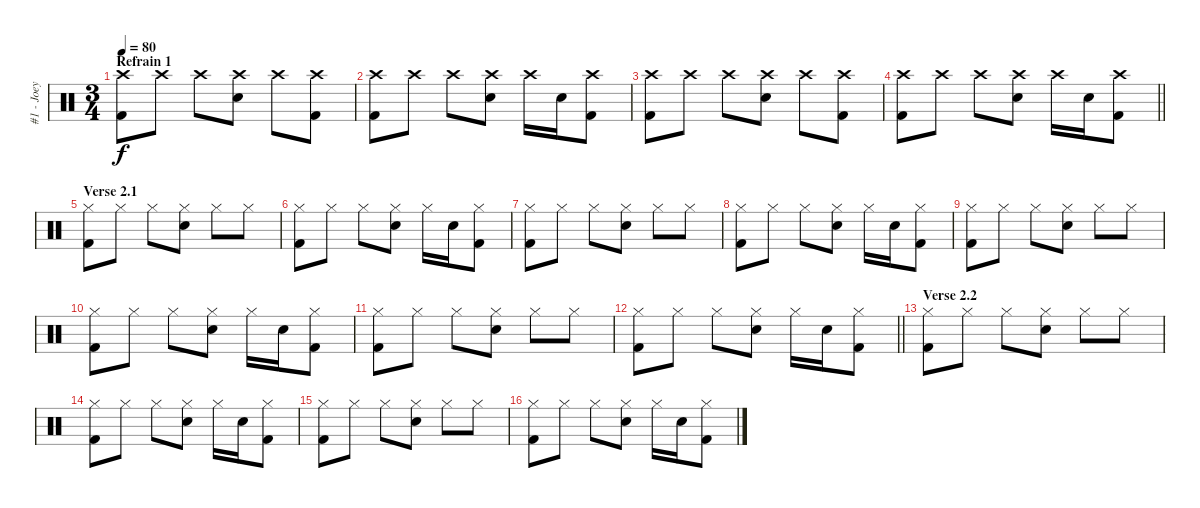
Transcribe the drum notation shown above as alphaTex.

\track ("#1 - Joey Jordison" "#1 - Joey ") {instrument percussion}
\staff {score}
\articulation defaults
\ts (3 4)
\section ("" "Refrain 1")
\tempo 80
\clef neutral
\ks c
("Crash high (hit)" "Kick (hit) 2").8{dy f} "Crash high (hit)".8 "Crash high (hit)".8 ("Crash high (hit)" "Snare (hit) 2").8 "Crash high (hit)".8 ("Crash high (hit)" "Kick (hit) 2").8 |
("Crash high (hit)" "Kick (hit) 2").8 "Crash high (hit)".8 "Crash high (hit)".8 ("Crash high (hit)" "Snare (hit) 2").8 "Crash high (hit)".16 "Snare (hit) 2".16 ("Crash high (hit)" "Kick (hit) 2").8 |
("Crash high (hit)" "Kick (hit) 2").8 "Crash high (hit)".8 "Crash high (hit)".8 ("Crash high (hit)" "Snare (hit) 2").8 "Crash high (hit)".8 ("Crash high (hit)" "Kick (hit) 2").8 |
\barLineRight lightlight
("Crash high (hit)" "Kick (hit) 2").8 "Crash high (hit)".8 "Crash high (hit)".8 ("Crash high (hit)" "Snare (hit) 2").8 "Crash high (hit)".16 "Snare (hit) 2".16 ("Crash high (hit)" "Kick (hit) 2").8 |
\section ("" "Verse 2.1")
("Hi-Hat (closed)" "Kick (hit) 2").8 "Hi-Hat (closed)".8 "Hi-Hat (closed)".8 ("Hi-Hat (closed)" "Snare (hit) 2").8 "Hi-Hat (closed)".8 "Hi-Hat (closed)".8 |
("Hi-Hat (closed)" "Kick (hit) 2").8 "Hi-Hat (closed)".8 "Hi-Hat (closed)".8 ("Hi-Hat (closed)" "Snare (hit) 2").8 "Hi-Hat (closed)".16 "Snare (hit) 2".16 ("Hi-Hat (closed)" "Kick (hit) 2").8 |
("Hi-Hat (closed)" "Kick (hit) 2").8 "Hi-Hat (closed)".8 "Hi-Hat (closed)".8 ("Hi-Hat (closed)" "Snare (hit) 2").8 "Hi-Hat (closed)".8 "Hi-Hat (closed)".8 |
("Hi-Hat (closed)" "Kick (hit) 2").8 "Hi-Hat (closed)".8 "Hi-Hat (closed)".8 ("Hi-Hat (closed)" "Snare (hit) 2").8 "Hi-Hat (closed)".16 "Snare (hit) 2".16 ("Hi-Hat (closed)" "Kick (hit) 2").8 |
("Hi-Hat (closed)" "Kick (hit) 2").8 "Hi-Hat (closed)".8 "Hi-Hat (closed)".8 ("Hi-Hat (closed)" "Snare (hit) 2").8 "Hi-Hat (closed)".8 "Hi-Hat (closed)".8 |
("Hi-Hat (closed)" "Kick (hit) 2").8 "Hi-Hat (closed)".8 "Hi-Hat (closed)".8 ("Hi-Hat (closed)" "Snare (hit) 2").8 "Hi-Hat (closed)".16 "Snare (hit) 2".16 ("Hi-Hat (closed)" "Kick (hit) 2").8 |
("Hi-Hat (closed)" "Kick (hit) 2").8 "Hi-Hat (closed)".8 "Hi-Hat (closed)".8 ("Hi-Hat (closed)" "Snare (hit) 2").8 "Hi-Hat (closed)".8 "Hi-Hat (closed)".8 |
\barLineRight lightlight
("Hi-Hat (closed)" "Kick (hit) 2").8 "Hi-Hat (closed)".8 "Hi-Hat (closed)".8 ("Hi-Hat (closed)" "Snare (hit) 2").8 "Hi-Hat (closed)".16 "Snare (hit) 2".16 ("Hi-Hat (closed)" "Kick (hit) 2").8 |
\section ("" "Verse 2.2")
("Hi-Hat (closed)" "Kick (hit) 2").8 "Hi-Hat (closed)".8 "Hi-Hat (closed)".8 ("Hi-Hat (closed)" "Snare (hit) 2").8 "Hi-Hat (closed)".8 "Hi-Hat (closed)".8 |
("Hi-Hat (closed)" "Kick (hit) 2").8 "Hi-Hat (closed)".8 "Hi-Hat (closed)".8 ("Hi-Hat (closed)" "Snare (hit) 2").8 "Hi-Hat (closed)".16 "Snare (hit) 2".16 ("Hi-Hat (closed)" "Kick (hit) 2").8 |
("Hi-Hat (closed)" "Kick (hit) 2").8 "Hi-Hat (closed)".8 "Hi-Hat (closed)".8 ("Hi-Hat (closed)" "Snare (hit) 2").8 "Hi-Hat (closed)".8 "Hi-Hat (closed)".8 |
("Hi-Hat (closed)" "Kick (hit) 2").8 "Hi-Hat (closed)".8 "Hi-Hat (closed)".8 ("Hi-Hat (closed)" "Snare (hit) 2").8 "Hi-Hat (closed)".16 "Snare (hit) 2".16 ("Hi-Hat (closed)" "Kick (hit) 2").8
